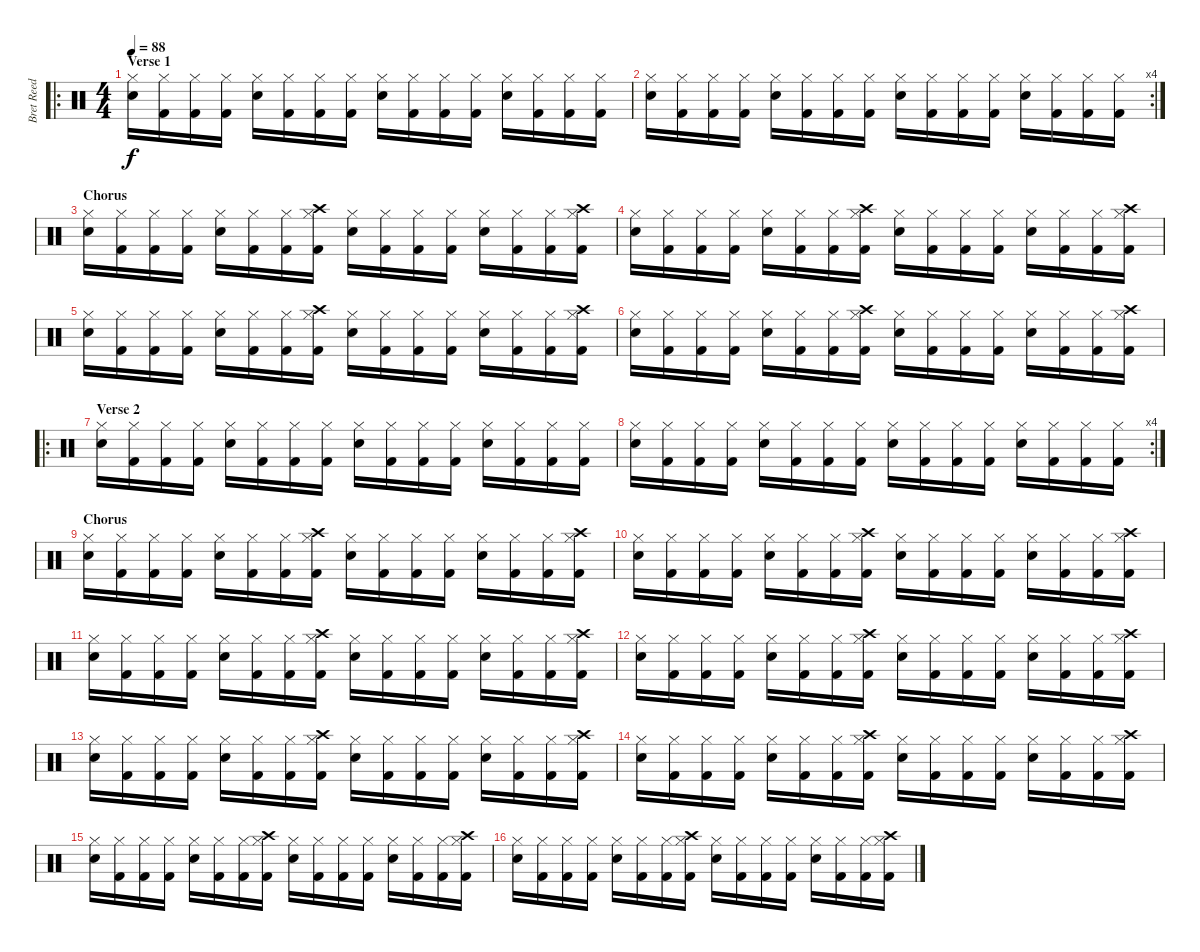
\track ("Bret Reed" "Bret Reed") {instrument percussion}
\staff {score}
\articulation defaults
\ro
\ts (4 4)
\section ("" "Verse 1")
\tempo 88
\clef neutral
\ks c
("Electric Snare (hit)" "Hi-Hat (closed)").16{dy f} ("Kick (hit) 2" "Hi-Hat (closed)").16 ("Kick (hit) 2" "Hi-Hat (closed)").16 ("Kick (hit) 2" "Hi-Hat (closed)").16 ("Electric Snare (hit)" "Hi-Hat (closed)").16 ("Kick (hit) 2" "Hi-Hat (closed)").16 ("Kick (hit) 2" "Hi-Hat (closed)").16 ("Kick (hit) 2" "Hi-Hat (closed)").16 ("Electric Snare (hit)" "Hi-Hat (closed)").16 ("Kick (hit) 2" "Hi-Hat (closed)").16 ("Kick (hit) 2" "Hi-Hat (closed)").16 ("Kick (hit) 2" "Hi-Hat (closed)").16 ("Electric Snare (hit)" "Hi-Hat (closed)").16 ("Kick (hit) 2" "Hi-Hat (closed)").16 ("Kick (hit) 2" "Hi-Hat (closed)").16 ("Kick (hit) 2" "Hi-Hat (closed)").16 |
\rc 4
("Electric Snare (hit)" "Hi-Hat (closed)").16 ("Kick (hit) 2" "Hi-Hat (closed)").16 ("Kick (hit) 2" "Hi-Hat (closed)").16 ("Kick (hit) 2" "Hi-Hat (closed)").16 ("Electric Snare (hit)" "Hi-Hat (closed)").16 ("Kick (hit) 2" "Hi-Hat (closed)").16 ("Kick (hit) 2" "Hi-Hat (closed)").16 ("Kick (hit) 2" "Hi-Hat (closed)").16 ("Electric Snare (hit)" "Hi-Hat (closed)").16 ("Kick (hit) 2" "Hi-Hat (closed)").16 ("Kick (hit) 2" "Hi-Hat (closed)").16 ("Kick (hit) 2" "Hi-Hat (closed)").16 ("Electric Snare (hit)" "Hi-Hat (closed)").16 ("Kick (hit) 2" "Hi-Hat (closed)").16 ("Kick (hit) 2" "Hi-Hat (closed)").16 ("Kick (hit) 2" "Hi-Hat (closed)").16 |
\section ("" "Chorus")
("Electric Snare (hit)" "Hi-Hat (closed)").16 ("Kick (hit) 2" "Hi-Hat (closed)").16 ("Kick (hit) 2" "Hi-Hat (closed)").16 ("Kick (hit) 2" "Hi-Hat (closed)").16 ("Electric Snare (hit)" "Hi-Hat (closed)").16 ("Kick (hit) 2" "Hi-Hat (closed)").16 ("Kick (hit) 2" "Hi-Hat (closed)").16 ("Crash high (hit)" "Kick (hit) 2" "Hi-Hat (closed)").16 ("Electric Snare (hit)" "Hi-Hat (closed)").16 ("Kick (hit) 2" "Hi-Hat (closed)").16 ("Kick (hit) 2" "Hi-Hat (closed)").16 ("Kick (hit) 2" "Hi-Hat (closed)").16 ("Electric Snare (hit)" "Hi-Hat (closed)").16 ("Kick (hit) 2" "Hi-Hat (closed)").16 ("Kick (hit) 2" "Hi-Hat (closed)").16 ("Crash high (hit)" "Kick (hit) 2" "Hi-Hat (closed)").16 |
("Electric Snare (hit)" "Hi-Hat (closed)").16 ("Kick (hit) 2" "Hi-Hat (closed)").16 ("Kick (hit) 2" "Hi-Hat (closed)").16 ("Kick (hit) 2" "Hi-Hat (closed)").16 ("Electric Snare (hit)" "Hi-Hat (closed)").16 ("Kick (hit) 2" "Hi-Hat (closed)").16 ("Kick (hit) 2" "Hi-Hat (closed)").16 ("Crash high (hit)" "Kick (hit) 2" "Hi-Hat (closed)").16 ("Electric Snare (hit)" "Hi-Hat (closed)").16 ("Kick (hit) 2" "Hi-Hat (closed)").16 ("Kick (hit) 2" "Hi-Hat (closed)").16 ("Kick (hit) 2" "Hi-Hat (closed)").16 ("Electric Snare (hit)" "Hi-Hat (closed)").16 ("Kick (hit) 2" "Hi-Hat (closed)").16 ("Kick (hit) 2" "Hi-Hat (closed)").16 ("Crash high (hit)" "Kick (hit) 2" "Hi-Hat (closed)").16 |
("Electric Snare (hit)" "Hi-Hat (closed)").16 ("Kick (hit) 2" "Hi-Hat (closed)").16 ("Kick (hit) 2" "Hi-Hat (closed)").16 ("Kick (hit) 2" "Hi-Hat (closed)").16 ("Electric Snare (hit)" "Hi-Hat (closed)").16 ("Kick (hit) 2" "Hi-Hat (closed)").16 ("Kick (hit) 2" "Hi-Hat (closed)").16 ("Crash high (hit)" "Kick (hit) 2" "Hi-Hat (closed)").16 ("Electric Snare (hit)" "Hi-Hat (closed)").16 ("Kick (hit) 2" "Hi-Hat (closed)").16 ("Kick (hit) 2" "Hi-Hat (closed)").16 ("Kick (hit) 2" "Hi-Hat (closed)").16 ("Electric Snare (hit)" "Hi-Hat (closed)").16 ("Kick (hit) 2" "Hi-Hat (closed)").16 ("Kick (hit) 2" "Hi-Hat (closed)").16 ("Crash high (hit)" "Kick (hit) 2" "Hi-Hat (closed)").16 |
("Electric Snare (hit)" "Hi-Hat (closed)").16 ("Kick (hit) 2" "Hi-Hat (closed)").16 ("Kick (hit) 2" "Hi-Hat (closed)").16 ("Kick (hit) 2" "Hi-Hat (closed)").16 ("Electric Snare (hit)" "Hi-Hat (closed)").16 ("Kick (hit) 2" "Hi-Hat (closed)").16 ("Kick (hit) 2" "Hi-Hat (closed)").16 ("Crash high (hit)" "Kick (hit) 2" "Hi-Hat (closed)").16 ("Electric Snare (hit)" "Hi-Hat (closed)").16 ("Kick (hit) 2" "Hi-Hat (closed)").16 ("Kick (hit) 2" "Hi-Hat (closed)").16 ("Kick (hit) 2" "Hi-Hat (closed)").16 ("Electric Snare (hit)" "Hi-Hat (closed)").16 ("Kick (hit) 2" "Hi-Hat (closed)").16 ("Kick (hit) 2" "Hi-Hat (closed)").16 ("Crash high (hit)" "Kick (hit) 2" "Hi-Hat (closed)").16 |
\ro
\section ("" "Verse 2")
("Electric Snare (hit)" "Hi-Hat (closed)").16 ("Kick (hit) 2" "Hi-Hat (closed)").16 ("Kick (hit) 2" "Hi-Hat (closed)").16 ("Kick (hit) 2" "Hi-Hat (closed)").16 ("Electric Snare (hit)" "Hi-Hat (closed)").16 ("Kick (hit) 2" "Hi-Hat (closed)").16 ("Kick (hit) 2" "Hi-Hat (closed)").16 ("Kick (hit) 2" "Hi-Hat (closed)").16 ("Electric Snare (hit)" "Hi-Hat (closed)").16 ("Kick (hit) 2" "Hi-Hat (closed)").16 ("Kick (hit) 2" "Hi-Hat (closed)").16 ("Kick (hit) 2" "Hi-Hat (closed)").16 ("Electric Snare (hit)" "Hi-Hat (closed)").16 ("Kick (hit) 2" "Hi-Hat (closed)").16 ("Kick (hit) 2" "Hi-Hat (closed)").16 ("Kick (hit) 2" "Hi-Hat (closed)").16 |
\rc 4
("Electric Snare (hit)" "Hi-Hat (closed)").16 ("Kick (hit) 2" "Hi-Hat (closed)").16 ("Kick (hit) 2" "Hi-Hat (closed)").16 ("Kick (hit) 2" "Hi-Hat (closed)").16 ("Electric Snare (hit)" "Hi-Hat (closed)").16 ("Kick (hit) 2" "Hi-Hat (closed)").16 ("Kick (hit) 2" "Hi-Hat (closed)").16 ("Kick (hit) 2" "Hi-Hat (closed)").16 ("Electric Snare (hit)" "Hi-Hat (closed)").16 ("Kick (hit) 2" "Hi-Hat (closed)").16 ("Kick (hit) 2" "Hi-Hat (closed)").16 ("Kick (hit) 2" "Hi-Hat (closed)").16 ("Electric Snare (hit)" "Hi-Hat (closed)").16 ("Kick (hit) 2" "Hi-Hat (closed)").16 ("Kick (hit) 2" "Hi-Hat (closed)").16 ("Kick (hit) 2" "Hi-Hat (closed)").16 |
\section ("" "Chorus")
("Electric Snare (hit)" "Hi-Hat (closed)").16 ("Kick (hit) 2" "Hi-Hat (closed)").16 ("Kick (hit) 2" "Hi-Hat (closed)").16 ("Kick (hit) 2" "Hi-Hat (closed)").16 ("Electric Snare (hit)" "Hi-Hat (closed)").16 ("Kick (hit) 2" "Hi-Hat (closed)").16 ("Kick (hit) 2" "Hi-Hat (closed)").16 ("Crash high (hit)" "Kick (hit) 2" "Hi-Hat (closed)").16 ("Electric Snare (hit)" "Hi-Hat (closed)").16 ("Kick (hit) 2" "Hi-Hat (closed)").16 ("Kick (hit) 2" "Hi-Hat (closed)").16 ("Kick (hit) 2" "Hi-Hat (closed)").16 ("Electric Snare (hit)" "Hi-Hat (closed)").16 ("Kick (hit) 2" "Hi-Hat (closed)").16 ("Kick (hit) 2" "Hi-Hat (closed)").16 ("Crash high (hit)" "Kick (hit) 2" "Hi-Hat (closed)").16 |
("Electric Snare (hit)" "Hi-Hat (closed)").16 ("Kick (hit) 2" "Hi-Hat (closed)").16 ("Kick (hit) 2" "Hi-Hat (closed)").16 ("Kick (hit) 2" "Hi-Hat (closed)").16 ("Electric Snare (hit)" "Hi-Hat (closed)").16 ("Kick (hit) 2" "Hi-Hat (closed)").16 ("Kick (hit) 2" "Hi-Hat (closed)").16 ("Crash high (hit)" "Kick (hit) 2" "Hi-Hat (closed)").16 ("Electric Snare (hit)" "Hi-Hat (closed)").16 ("Kick (hit) 2" "Hi-Hat (closed)").16 ("Kick (hit) 2" "Hi-Hat (closed)").16 ("Kick (hit) 2" "Hi-Hat (closed)").16 ("Electric Snare (hit)" "Hi-Hat (closed)").16 ("Kick (hit) 2" "Hi-Hat (closed)").16 ("Kick (hit) 2" "Hi-Hat (closed)").16 ("Crash high (hit)" "Kick (hit) 2" "Hi-Hat (closed)").16 |
("Electric Snare (hit)" "Hi-Hat (closed)").16 ("Kick (hit) 2" "Hi-Hat (closed)").16 ("Kick (hit) 2" "Hi-Hat (closed)").16 ("Kick (hit) 2" "Hi-Hat (closed)").16 ("Electric Snare (hit)" "Hi-Hat (closed)").16 ("Kick (hit) 2" "Hi-Hat (closed)").16 ("Kick (hit) 2" "Hi-Hat (closed)").16 ("Crash high (hit)" "Kick (hit) 2" "Hi-Hat (closed)").16 ("Electric Snare (hit)" "Hi-Hat (closed)").16 ("Kick (hit) 2" "Hi-Hat (closed)").16 ("Kick (hit) 2" "Hi-Hat (closed)").16 ("Kick (hit) 2" "Hi-Hat (closed)").16 ("Electric Snare (hit)" "Hi-Hat (closed)").16 ("Kick (hit) 2" "Hi-Hat (closed)").16 ("Kick (hit) 2" "Hi-Hat (closed)").16 ("Crash high (hit)" "Kick (hit) 2" "Hi-Hat (closed)").16 |
("Electric Snare (hit)" "Hi-Hat (closed)").16 ("Kick (hit) 2" "Hi-Hat (closed)").16 ("Kick (hit) 2" "Hi-Hat (closed)").16 ("Kick (hit) 2" "Hi-Hat (closed)").16 ("Electric Snare (hit)" "Hi-Hat (closed)").16 ("Kick (hit) 2" "Hi-Hat (closed)").16 ("Kick (hit) 2" "Hi-Hat (closed)").16 ("Crash high (hit)" "Kick (hit) 2" "Hi-Hat (closed)").16 ("Electric Snare (hit)" "Hi-Hat (closed)").16 ("Kick (hit) 2" "Hi-Hat (closed)").16 ("Kick (hit) 2" "Hi-Hat (closed)").16 ("Kick (hit) 2" "Hi-Hat (closed)").16 ("Electric Snare (hit)" "Hi-Hat (closed)").16 ("Kick (hit) 2" "Hi-Hat (closed)").16 ("Kick (hit) 2" "Hi-Hat (closed)").16 ("Crash high (hit)" "Kick (hit) 2" "Hi-Hat (closed)").16 |
("Electric Snare (hit)" "Hi-Hat (closed)").16 ("Kick (hit) 2" "Hi-Hat (closed)").16 ("Kick (hit) 2" "Hi-Hat (closed)").16 ("Kick (hit) 2" "Hi-Hat (closed)").16 ("Electric Snare (hit)" "Hi-Hat (closed)").16 ("Kick (hit) 2" "Hi-Hat (closed)").16 ("Kick (hit) 2" "Hi-Hat (closed)").16 ("Crash high (hit)" "Kick (hit) 2" "Hi-Hat (closed)").16 ("Electric Snare (hit)" "Hi-Hat (closed)").16 ("Kick (hit) 2" "Hi-Hat (closed)").16 ("Kick (hit) 2" "Hi-Hat (closed)").16 ("Kick (hit) 2" "Hi-Hat (closed)").16 ("Electric Snare (hit)" "Hi-Hat (closed)").16 ("Kick (hit) 2" "Hi-Hat (closed)").16 ("Kick (hit) 2" "Hi-Hat (closed)").16 ("Crash high (hit)" "Kick (hit) 2" "Hi-Hat (closed)").16 |
("Electric Snare (hit)" "Hi-Hat (closed)").16 ("Kick (hit) 2" "Hi-Hat (closed)").16 ("Kick (hit) 2" "Hi-Hat (closed)").16 ("Kick (hit) 2" "Hi-Hat (closed)").16 ("Electric Snare (hit)" "Hi-Hat (closed)").16 ("Kick (hit) 2" "Hi-Hat (closed)").16 ("Kick (hit) 2" "Hi-Hat (closed)").16 ("Crash high (hit)" "Kick (hit) 2" "Hi-Hat (closed)").16 ("Electric Snare (hit)" "Hi-Hat (closed)").16 ("Kick (hit) 2" "Hi-Hat (closed)").16 ("Kick (hit) 2" "Hi-Hat (closed)").16 ("Kick (hit) 2" "Hi-Hat (closed)").16 ("Electric Snare (hit)" "Hi-Hat (closed)").16 ("Kick (hit) 2" "Hi-Hat (closed)").16 ("Kick (hit) 2" "Hi-Hat (closed)").16 ("Crash high (hit)" "Kick (hit) 2" "Hi-Hat (closed)").16 |
("Electric Snare (hit)" "Hi-Hat (closed)").16 ("Kick (hit) 2" "Hi-Hat (closed)").16 ("Kick (hit) 2" "Hi-Hat (closed)").16 ("Kick (hit) 2" "Hi-Hat (closed)").16 ("Electric Snare (hit)" "Hi-Hat (closed)").16 ("Kick (hit) 2" "Hi-Hat (closed)").16 ("Kick (hit) 2" "Hi-Hat (closed)").16 ("Crash high (hit)" "Kick (hit) 2" "Hi-Hat (closed)").16 ("Electric Snare (hit)" "Hi-Hat (closed)").16 ("Kick (hit) 2" "Hi-Hat (closed)").16 ("Kick (hit) 2" "Hi-Hat (closed)").16 ("Kick (hit) 2" "Hi-Hat (closed)").16 ("Electric Snare (hit)" "Hi-Hat (closed)").16 ("Kick (hit) 2" "Hi-Hat (closed)").16 ("Kick (hit) 2" "Hi-Hat (closed)").16 ("Crash high (hit)" "Kick (hit) 2" "Hi-Hat (closed)").16 |
("Electric Snare (hit)" "Hi-Hat (closed)").16 ("Kick (hit) 2" "Hi-Hat (closed)").16 ("Kick (hit) 2" "Hi-Hat (closed)").16 ("Kick (hit) 2" "Hi-Hat (closed)").16 ("Electric Snare (hit)" "Hi-Hat (closed)").16 ("Kick (hit) 2" "Hi-Hat (closed)").16 ("Kick (hit) 2" "Hi-Hat (closed)").16 ("Crash high (hit)" "Kick (hit) 2" "Hi-Hat (closed)").16 ("Electric Snare (hit)" "Hi-Hat (closed)").16 ("Kick (hit) 2" "Hi-Hat (closed)").16 ("Kick (hit) 2" "Hi-Hat (closed)").16 ("Kick (hit) 2" "Hi-Hat (closed)").16 ("Electric Snare (hit)" "Hi-Hat (closed)").16 ("Kick (hit) 2" "Hi-Hat (closed)").16 ("Kick (hit) 2" "Hi-Hat (closed)").16 ("Crash high (hit)" "Kick (hit) 2" "Hi-Hat (closed)").16
